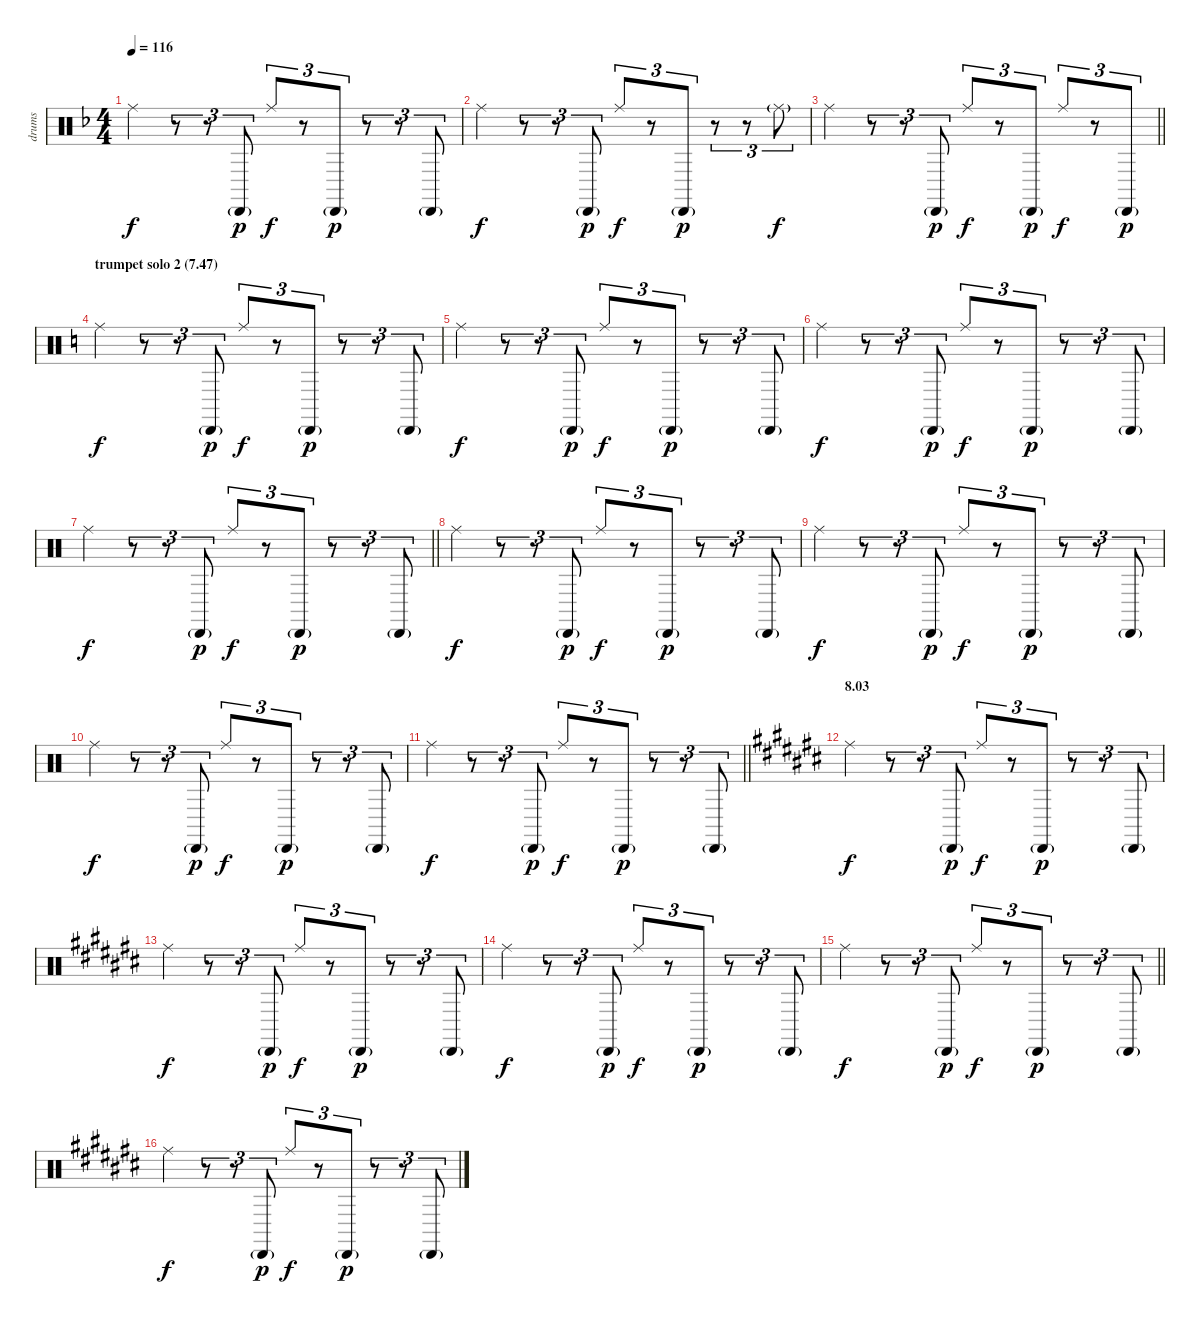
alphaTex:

\track ("drums" "drums") {instrument percussion}
\staff {score}
\articulation defaults
\ts (4 4)
\tempo 116
\clef neutral
\ks f "Ride (middle)".4{dy f}
r.8{tu (3 2)} r.8{tu (3 2)} "Cabasa (hit)"{g}.8{tu (3 2) dy p} "Ride (middle)".8{tu (3 2) dy f} r.8{tu (3 2)} "Cabasa (hit)"{g}.8{tu (3 2) dy p} r.8{tu (3 2)} r.8{tu (3 2)} "Cabasa (hit)"{g}.8{tu (3 2)} |
"Ride (middle)".4{dy f} r.8{tu (3 2)} r.8{tu (3 2)} "Cabasa (hit)"{g}.8{tu (3 2) dy p} "Ride (middle)".8{tu (3 2) dy f} r.8{tu (3 2)} "Cabasa (hit)"{g}.8{tu (3 2) dy p} r.8{tu (3 2)} r.8{tu (3 2)} "Ride (middle)"{g}.8{tu (3 2) dy f} |
\barLineRight lightlight "Ride (middle)".4
r.8{tu (3 2)} r.8{tu (3 2)} "Cabasa (hit)"{g}.8{tu (3 2) dy p} "Ride (middle)".8{tu (3 2) dy f} r.8{tu (3 2)} "Cabasa (hit)"{g}.8{tu (3 2) dy p} "Ride (middle)".8{tu (3 2) dy f} r.8{tu (3 2)} "Cabasa (hit)"{g}.8{tu (3 2) dy p} |
\section ("" "trumpet solo 2 (7.47)")
\ks c "Ride (middle)".4{dy f}
r.8{tu (3 2)} r.8{tu (3 2)} "Cabasa (hit)"{g}.8{tu (3 2) dy p} "Ride (middle)".8{tu (3 2) dy f} r.8{tu (3 2)} "Cabasa (hit)"{g}.8{tu (3 2) dy p} r.8{tu (3 2)} r.8{tu (3 2)} "Cabasa (hit)"{g}.8{tu (3 2)} |
"Ride (middle)".4{dy f} r.8{tu (3 2)} r.8{tu (3 2)} "Cabasa (hit)"{g}.8{tu (3 2) dy p} "Ride (middle)".8{tu (3 2) dy f} r.8{tu (3 2)} "Cabasa (hit)"{g}.8{tu (3 2) dy p} r.8{tu (3 2)} r.8{tu (3 2)} "Cabasa (hit)"{g}.8{tu (3 2)} |
"Ride (middle)".4{dy f} r.8{tu (3 2)} r.8{tu (3 2)} "Cabasa (hit)"{g}.8{tu (3 2) dy p} "Ride (middle)".8{tu (3 2) dy f} r.8{tu (3 2)} "Cabasa (hit)"{g}.8{tu (3 2) dy p} r.8{tu (3 2)} r.8{tu (3 2)} "Cabasa (hit)"{g}.8{tu (3 2)} |
\barLineRight lightlight "Ride (middle)".4{dy f}
r.8{tu (3 2)} r.8{tu (3 2)} "Cabasa (hit)"{g}.8{tu (3 2) dy p} "Ride (middle)".8{tu (3 2) dy f} r.8{tu (3 2)} "Cabasa (hit)"{g}.8{tu (3 2) dy p} r.8{tu (3 2)} r.8{tu (3 2)} "Cabasa (hit)"{g}.8{tu (3 2)} |
"Ride (middle)".4{dy f} r.8{tu (3 2)} r.8{tu (3 2)} "Cabasa (hit)"{g}.8{tu (3 2) dy p} "Ride (middle)".8{tu (3 2) dy f} r.8{tu (3 2)} "Cabasa (hit)"{g}.8{tu (3 2) dy p} r.8{tu (3 2)} r.8{tu (3 2)} "Cabasa (hit)"{g}.8{tu (3 2)} |
"Ride (middle)".4{dy f} r.8{tu (3 2)} r.8{tu (3 2)} "Cabasa (hit)"{g}.8{tu (3 2) dy p} "Ride (middle)".8{tu (3 2) dy f} r.8{tu (3 2)} "Cabasa (hit)"{g}.8{tu (3 2) dy p} r.8{tu (3 2)} r.8{tu (3 2)} "Cabasa (hit)"{g}.8{tu (3 2)} |
"Ride (middle)".4{dy f} r.8{tu (3 2)} r.8{tu (3 2)} "Cabasa (hit)"{g}.8{tu (3 2) dy p} "Ride (middle)".8{tu (3 2) dy f} r.8{tu (3 2)} "Cabasa (hit)"{g}.8{tu (3 2) dy p} r.8{tu (3 2)} r.8{tu (3 2)} "Cabasa (hit)"{g}.8{tu (3 2)} |
\barLineRight lightlight "Ride (middle)".4{dy f}
r.8{tu (3 2)} r.8{tu (3 2)} "Cabasa (hit)"{g}.8{tu (3 2) dy p} "Ride (middle)".8{tu (3 2) dy f} r.8{tu (3 2)} "Cabasa (hit)"{g}.8{tu (3 2) dy p} r.8{tu (3 2)} r.8{tu (3 2)} "Cabasa (hit)"{g}.8{tu (3 2)} |
\section ("" "8.03")
\ks c# "Ride (middle)".4{dy f}
r.8{tu (3 2)} r.8{tu (3 2)} "Cabasa (hit)"{g}.8{tu (3 2) dy p} "Ride (middle)".8{tu (3 2) dy f} r.8{tu (3 2)} "Cabasa (hit)"{g}.8{tu (3 2) dy p} r.8{tu (3 2)} r.8{tu (3 2)} "Cabasa (hit)"{g}.8{tu (3 2)} |
"Ride (middle)".4{dy f} r.8{tu (3 2)} r.8{tu (3 2)} "Cabasa (hit)"{g}.8{tu (3 2) dy p} "Ride (middle)".8{tu (3 2) dy f} r.8{tu (3 2)} "Cabasa (hit)"{g}.8{tu (3 2) dy p} r.8{tu (3 2)} r.8{tu (3 2)} "Cabasa (hit)"{g}.8{tu (3 2)} |
"Ride (middle)".4{dy f} r.8{tu (3 2)} r.8{tu (3 2)} "Cabasa (hit)"{g}.8{tu (3 2) dy p} "Ride (middle)".8{tu (3 2) dy f} r.8{tu (3 2)} "Cabasa (hit)"{g}.8{tu (3 2) dy p} r.8{tu (3 2)} r.8{tu (3 2)} "Cabasa (hit)"{g}.8{tu (3 2)} |
\barLineRight lightlight "Ride (middle)".4{dy f}
r.8{tu (3 2)} r.8{tu (3 2)} "Cabasa (hit)"{g}.8{tu (3 2) dy p} "Ride (middle)".8{tu (3 2) dy f} r.8{tu (3 2)} "Cabasa (hit)"{g}.8{tu (3 2) dy p} r.8{tu (3 2)} r.8{tu (3 2)} "Cabasa (hit)"{g}.8{tu (3 2)} |
"Ride (middle)".4{dy f} r.8{tu (3 2)} r.8{tu (3 2)} "Cabasa (hit)"{g}.8{tu (3 2) dy p} "Ride (middle)".8{tu (3 2) dy f} r.8{tu (3 2)} "Cabasa (hit)"{g}.8{tu (3 2) dy p} r.8{tu (3 2)} r.8{tu (3 2)} "Cabasa (hit)"{g}.8{tu (3 2)}
